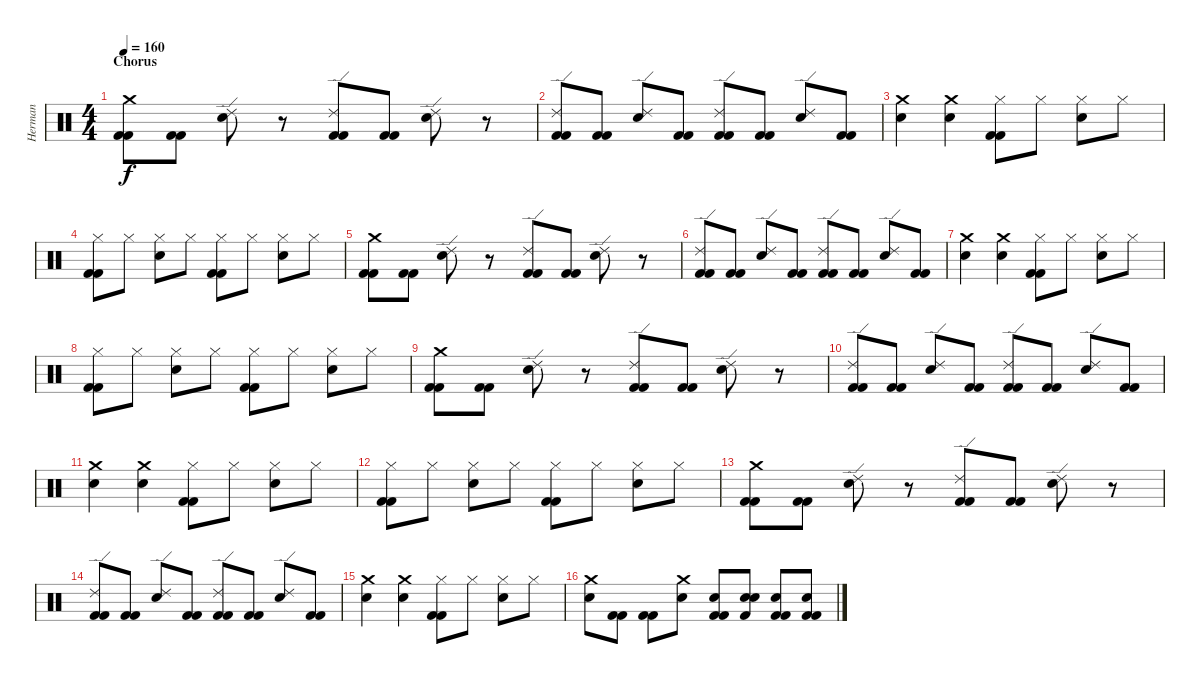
\track ("Herman" "Herman") {instrument percussion}
\staff {score}
\articulation defaults
\ts (4 4)
\section ("" "Chorus")
\tempo 160
\clef neutral
\ks c
("Crash medium (hit)" "Kick (hit) 2" "Kick (hit) 2").8{dy f} ("Kick (hit) 2" "Kick (hit) 2").8 ("Electric Snare (hit)" "Ride (edge) 2").8 r.8 ("Ride (edge) 2" "Kick (hit) 2" "Kick (hit) 2").8 ("Kick (hit) 2" "Kick (hit) 2").8 ("Electric Snare (hit)" "Ride (edge) 2").8 r.8 |
("Kick (hit) 2" "Kick (hit) 2" "Ride (edge) 2").8 ("Kick (hit) 2" "Kick (hit) 2").8 ("Electric Snare (hit)" "Ride (edge) 2").8 ("Kick (hit) 2" "Kick (hit) 2").8 ("Kick (hit) 2" "Kick (hit) 2" "Ride (edge) 2").8 ("Kick (hit) 2" "Kick (hit) 2").8 ("Electric Snare (hit)" "Ride (edge) 2").8 ("Kick (hit) 2" "Kick (hit) 2").8 |
("Crash medium (hit)" "Electric Snare (hit)").4 ("Crash medium (hit)" "Electric Snare (hit)").4 ("Hi-Hat (closed)" "Kick (hit) 2" "Kick (hit) 2").8 "Hi-Hat (closed)".8 ("Electric Snare (hit)" "Hi-Hat (closed)").8 "Hi-Hat (closed)".8 |
("Kick (hit) 2" "Kick (hit) 2" "Hi-Hat (closed)").8 "Hi-Hat (closed)".8 ("Hi-Hat (closed)" "Electric Snare (hit)").8 "Hi-Hat (closed)".8 ("Hi-Hat (closed)" "Kick (hit) 2" "Kick (hit) 2").8 "Hi-Hat (closed)".8 ("Electric Snare (hit)" "Hi-Hat (closed)").8 "Hi-Hat (closed)".8 |
("Crash medium (hit)" "Kick (hit) 2" "Kick (hit) 2").8 ("Kick (hit) 2" "Kick (hit) 2").8 ("Electric Snare (hit)" "Ride (edge) 2").8 r.8 ("Ride (edge) 2" "Kick (hit) 2" "Kick (hit) 2").8 ("Kick (hit) 2" "Kick (hit) 2").8 ("Electric Snare (hit)" "Ride (edge) 2").8 r.8 |
("Kick (hit) 2" "Kick (hit) 2" "Ride (edge) 2").8 ("Kick (hit) 2" "Kick (hit) 2").8 ("Electric Snare (hit)" "Ride (edge) 2").8 ("Kick (hit) 2" "Kick (hit) 2").8 ("Kick (hit) 2" "Kick (hit) 2" "Ride (edge) 2").8 ("Kick (hit) 2" "Kick (hit) 2").8 ("Electric Snare (hit)" "Ride (edge) 2").8 ("Kick (hit) 2" "Kick (hit) 2").8 |
("Crash medium (hit)" "Electric Snare (hit)").4 ("Crash medium (hit)" "Electric Snare (hit)").4 ("Hi-Hat (closed)" "Kick (hit) 2" "Kick (hit) 2").8 "Hi-Hat (closed)".8 ("Electric Snare (hit)" "Hi-Hat (closed)").8 "Hi-Hat (closed)".8 |
("Kick (hit) 2" "Kick (hit) 2" "Hi-Hat (closed)").8 "Hi-Hat (closed)".8 ("Hi-Hat (closed)" "Electric Snare (hit)").8 "Hi-Hat (closed)".8 ("Hi-Hat (closed)" "Kick (hit) 2" "Kick (hit) 2").8 "Hi-Hat (closed)".8 ("Electric Snare (hit)" "Hi-Hat (closed)").8 "Hi-Hat (closed)".8 |
("Crash medium (hit)" "Kick (hit) 2" "Kick (hit) 2").8 ("Kick (hit) 2" "Kick (hit) 2").8 ("Electric Snare (hit)" "Ride (edge) 2").8 r.8 ("Ride (edge) 2" "Kick (hit) 2" "Kick (hit) 2").8 ("Kick (hit) 2" "Kick (hit) 2").8 ("Electric Snare (hit)" "Ride (edge) 2").8 r.8 |
("Kick (hit) 2" "Kick (hit) 2" "Ride (edge) 2").8 ("Kick (hit) 2" "Kick (hit) 2").8 ("Electric Snare (hit)" "Ride (edge) 2").8 ("Kick (hit) 2" "Kick (hit) 2").8 ("Kick (hit) 2" "Kick (hit) 2" "Ride (edge) 2").8 ("Kick (hit) 2" "Kick (hit) 2").8 ("Electric Snare (hit)" "Ride (edge) 2").8 ("Kick (hit) 2" "Kick (hit) 2").8 |
("Crash medium (hit)" "Electric Snare (hit)").4 ("Crash medium (hit)" "Electric Snare (hit)").4 ("Hi-Hat (closed)" "Kick (hit) 2" "Kick (hit) 2").8 "Hi-Hat (closed)".8 ("Electric Snare (hit)" "Hi-Hat (closed)").8 "Hi-Hat (closed)".8 |
("Kick (hit) 2" "Kick (hit) 2" "Hi-Hat (closed)").8 "Hi-Hat (closed)".8 ("Hi-Hat (closed)" "Electric Snare (hit)").8 "Hi-Hat (closed)".8 ("Hi-Hat (closed)" "Kick (hit) 2" "Kick (hit) 2").8 "Hi-Hat (closed)".8 ("Electric Snare (hit)" "Hi-Hat (closed)").8 "Hi-Hat (closed)".8 |
("Crash medium (hit)" "Kick (hit) 2" "Kick (hit) 2").8 ("Kick (hit) 2" "Kick (hit) 2").8 ("Electric Snare (hit)" "Ride (edge) 2").8 r.8 ("Ride (edge) 2" "Kick (hit) 2" "Kick (hit) 2").8 ("Kick (hit) 2" "Kick (hit) 2").8 ("Electric Snare (hit)" "Ride (edge) 2").8 r.8 |
("Kick (hit) 2" "Kick (hit) 2" "Ride (edge) 2").8 ("Kick (hit) 2" "Kick (hit) 2").8 ("Electric Snare (hit)" "Ride (edge) 2").8 ("Kick (hit) 2" "Kick (hit) 2").8 ("Kick (hit) 2" "Kick (hit) 2" "Ride (edge) 2").8 ("Kick (hit) 2" "Kick (hit) 2").8 ("Electric Snare (hit)" "Ride (edge) 2").8 ("Kick (hit) 2" "Kick (hit) 2").8 |
("Crash medium (hit)" "Electric Snare (hit)").4 ("Crash medium (hit)" "Electric Snare (hit)").4 ("Hi-Hat (closed)" "Kick (hit) 2" "Kick (hit) 2").8 "Hi-Hat (closed)".8 ("Electric Snare (hit)" "Hi-Hat (closed)").8 "Hi-Hat (closed)".8 |
("Crash medium (hit)" "Electric Snare (hit)").8 ("Kick (hit) 2" "Kick (hit) 2").8 ("Kick (hit) 2" "Kick (hit) 2").8 ("Crash medium (hit)" "Electric Snare (hit)").8 ("Kick (hit) 2" "Electric Snare (hit)" "Kick (hit) 2").8 ("Electric Snare (hit)" "Electric Snare (hit)" "Kick (hit) 2").8 ("Kick (hit) 2" "Kick (hit) 2" "Electric Snare (hit)").8 ("Electric Snare (hit)" "Kick (hit) 2" "Kick (hit) 2").8
